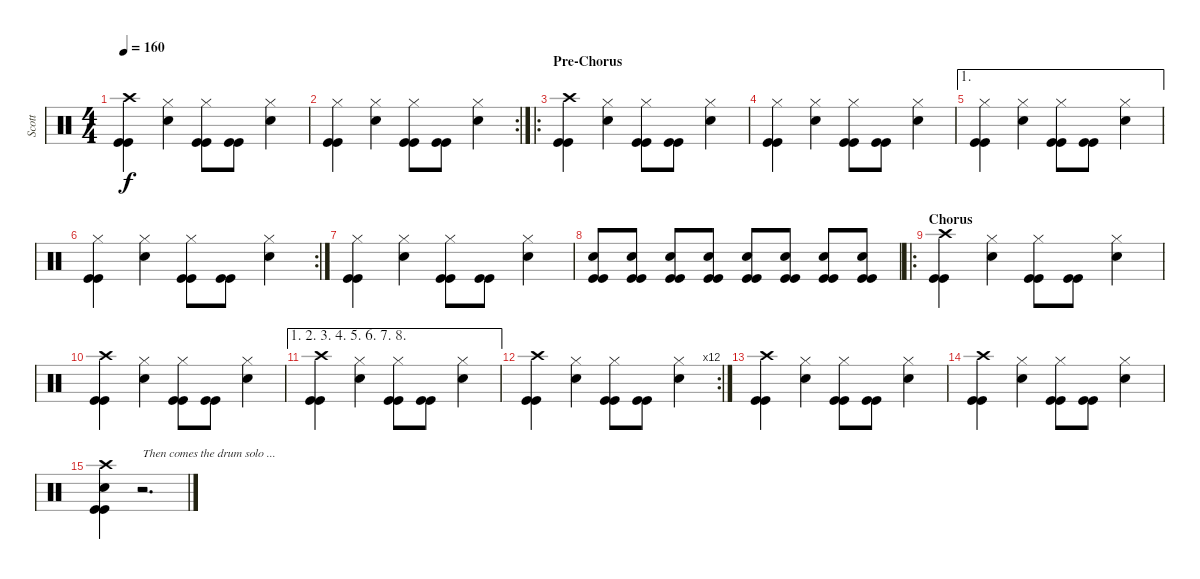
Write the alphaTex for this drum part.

\track ("Scott" "Scott") {instrument percussion}
\staff {score}
\articulation defaults
\ts (4 4)
\tempo 160
\clef neutral
\ks c
("Crash high (hit)" "Kick (hit)" "Kick (hit)").4{dy f} ("Hi-Hat (closed)" "Snare (hit) 2").4 ("Hi-Hat (closed)" "Kick (hit)" "Kick (hit)").8 ("Kick (hit)" "Kick (hit)").8 ("Hi-Hat (closed)" "Snare (hit) 2").4 |
\rc 2
("Hi-Hat (closed)" "Kick (hit)" "Kick (hit)").4 ("Hi-Hat (closed)" "Snare (hit) 2").4 ("Hi-Hat (closed)" "Kick (hit)" "Kick (hit)").8 ("Kick (hit)" "Kick (hit)").8 ("Hi-Hat (closed)" "Snare (hit) 2").4 |
\ro
\section ("" "Pre-Chorus")
("Crash high (hit)" "Kick (hit)" "Kick (hit)").4 ("Hi-Hat (closed)" "Snare (hit) 2").4 ("Hi-Hat (closed)" "Kick (hit)" "Kick (hit)").8 ("Kick (hit)" "Kick (hit)").8 ("Hi-Hat (closed)" "Snare (hit) 2").4 |
("Hi-Hat (closed)" "Kick (hit)" "Kick (hit)").4 ("Hi-Hat (closed)" "Snare (hit) 2").4 ("Hi-Hat (closed)" "Kick (hit)" "Kick (hit)").8 ("Kick (hit)" "Kick (hit)").8 ("Hi-Hat (closed)" "Snare (hit) 2").4 |
\ae 1
("Hi-Hat (closed)" "Kick (hit)" "Kick (hit)").4 ("Hi-Hat (closed)" "Snare (hit) 2").4 ("Hi-Hat (closed)" "Kick (hit)" "Kick (hit)").8 ("Kick (hit)" "Kick (hit)").8 ("Hi-Hat (closed)" "Snare (hit) 2").4 |
\rc 2
("Hi-Hat (closed)" "Kick (hit)" "Kick (hit)").4 ("Hi-Hat (closed)" "Snare (hit) 2").4 ("Hi-Hat (closed)" "Kick (hit)" "Kick (hit)").8 ("Kick (hit)" "Kick (hit)").8 ("Hi-Hat (closed)" "Snare (hit) 2").4 |
("Hi-Hat (closed)" "Kick (hit)" "Kick (hit)").4 ("Hi-Hat (closed)" "Snare (hit) 2").4 ("Hi-Hat (closed)" "Kick (hit)" "Kick (hit)").8 ("Kick (hit)" "Kick (hit)").8 ("Hi-Hat (closed)" "Snare (hit) 2").4 |
("Snare (hit) 2" "Kick (hit)" "Kick (hit)").8 ("Snare (hit) 2" "Kick (hit)" "Kick (hit)").8 ("Snare (hit) 2" "Kick (hit)" "Kick (hit)").8 ("Snare (hit) 2" "Kick (hit)" "Kick (hit)").8 ("Snare (hit) 2" "Kick (hit)" "Kick (hit)").8 ("Snare (hit) 2" "Kick (hit)" "Kick (hit)").8 ("Snare (hit) 2" "Kick (hit)" "Kick (hit)").8 ("Snare (hit) 2" "Kick (hit)" "Kick (hit)").8 |
\ro
\section ("" "Chorus")
("Crash high (hit)" "Kick (hit)" "Kick (hit)").4 ("Hi-Hat (closed)" "Snare (hit) 2").4 ("Hi-Hat (closed)" "Kick (hit)" "Kick (hit)").8 ("Kick (hit)" "Kick (hit)").8 ("Hi-Hat (closed)" "Snare (hit) 2").4 |
("Crash high (hit)" "Kick (hit)" "Kick (hit)").4 ("Hi-Hat (closed)" "Snare (hit) 2").4 ("Hi-Hat (closed)" "Kick (hit)" "Kick (hit)").8 ("Kick (hit)" "Kick (hit)").8 ("Hi-Hat (closed)" "Snare (hit) 2").4 |
\ae (1 2 3 4 5 6 7 8)
("Crash high (hit)" "Kick (hit)" "Kick (hit)").4 ("Hi-Hat (closed)" "Snare (hit) 2").4 ("Hi-Hat (closed)" "Kick (hit)" "Kick (hit)").8 ("Kick (hit)" "Kick (hit)").8 ("Hi-Hat (closed)" "Snare (hit) 2").4 |
\rc 12
("Crash high (hit)" "Kick (hit)" "Kick (hit)").4 ("Hi-Hat (closed)" "Snare (hit) 2").4 ("Hi-Hat (closed)" "Kick (hit)" "Kick (hit)").8 ("Kick (hit)" "Kick (hit)").8 ("Hi-Hat (closed)" "Snare (hit) 2").4 |
("Crash high (hit)" "Kick (hit)" "Kick (hit)").4 ("Hi-Hat (closed)" "Snare (hit) 2").4 ("Hi-Hat (closed)" "Kick (hit)" "Kick (hit)").8 ("Kick (hit)" "Kick (hit)").8 ("Hi-Hat (closed)" "Snare (hit) 2").4 |
("Crash high (hit)" "Kick (hit)" "Kick (hit)").4 ("Hi-Hat (closed)" "Snare (hit) 2").4 ("Hi-Hat (closed)" "Kick (hit)" "Kick (hit)").8 ("Kick (hit)" "Kick (hit)").8 ("Hi-Hat (closed)" "Snare (hit) 2").4 |
("Crash high (hit)" "Snare (hit) 2" "Kick (hit)" "Kick (hit)").4 r.2{d txt "Then comes the drum solo ..."}
